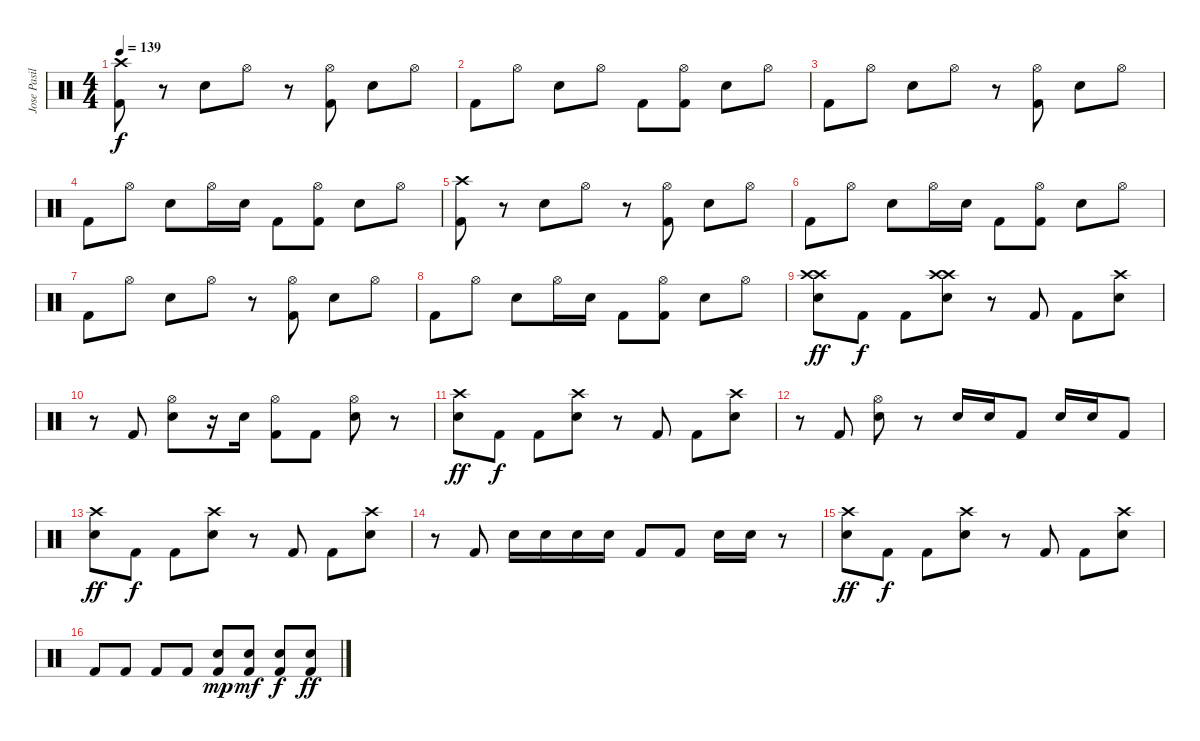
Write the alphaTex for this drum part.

\track ("Jose Pasillas - Drums" "Jose Pasil") {instrument percussion}
\staff {score}
\articulation defaults
\ts (4 4)
\tempo 139
\clef neutral
\ks c
("Crash high (hit)" "Kick (hit) 2").8{dy f} r.8 "Electric Snare (hit)".8 "Hi-Hat (open)".8 r.8 ("Hi-Hat (open)" "Kick (hit) 2").8 "Electric Snare (hit)".8 "Hi-Hat (open)".8 |
"Kick (hit) 2".8 "Hi-Hat (open)".8 "Electric Snare (hit)".8 "Hi-Hat (open)".8 "Kick (hit) 2".8 ("Hi-Hat (open)" "Kick (hit) 2").8 "Electric Snare (hit)".8 "Hi-Hat (open)".8 |
"Kick (hit) 2".8 "Hi-Hat (open)".8 "Electric Snare (hit)".8 "Hi-Hat (open)".8 r.8 ("Hi-Hat (open)" "Kick (hit) 2").8 "Electric Snare (hit)".8 "Hi-Hat (open)".8 |
"Kick (hit) 2".8 "Hi-Hat (open)".8 "Electric Snare (hit)".8 "Hi-Hat (open)".16 "Electric Snare (hit)".16 "Kick (hit) 2".8 ("Hi-Hat (open)" "Kick (hit) 2").8 "Electric Snare (hit)".8 "Hi-Hat (open)".8 |
("Crash high (hit)" "Kick (hit) 2").8 r.8 "Electric Snare (hit)".8 "Hi-Hat (open)".8 r.8 ("Hi-Hat (open)" "Kick (hit) 2").8 "Electric Snare (hit)".8 "Hi-Hat (open)".8 |
"Kick (hit) 2".8 "Hi-Hat (open)".8 "Electric Snare (hit)".8 "Hi-Hat (open)".16 "Electric Snare (hit)".16 "Kick (hit) 2".8 ("Hi-Hat (open)" "Kick (hit) 2").8 "Electric Snare (hit)".8 "Hi-Hat (open)".8 |
"Kick (hit) 2".8 "Hi-Hat (open)".8 "Electric Snare (hit)".8 "Hi-Hat (open)".8 r.8 ("Hi-Hat (open)" "Kick (hit) 2").8 "Electric Snare (hit)".8 "Hi-Hat (open)".8 |
"Kick (hit) 2".8 "Hi-Hat (open)".8 "Electric Snare (hit)".8 "Hi-Hat (open)".16 "Electric Snare (hit)".16 "Kick (hit) 2".8 ("Hi-Hat (open)" "Kick (hit) 2").8 "Electric Snare (hit)".8 "Hi-Hat (open)".8 |
("Crash high (hit)" "Crash high (hit)" "Electric Snare (hit)").8{dy ff} "Kick (hit) 2".8{dy f} "Kick (hit) 2".8 ("Crash high (hit)" "Crash high (hit)" "Electric Snare (hit)").8 r.8 "Kick (hit) 2".8 "Kick (hit) 2".8 ("Crash high (hit)" "Electric Snare (hit)").8 |
r.8 "Kick (hit) 2".8 ("Hi-Hat (open)" "Electric Snare (hit)").8 r.16 "Electric Snare (hit)".16 ("Hi-Hat (open)" "Kick (hit) 2").8 "Kick (hit) 2".8 ("Hi-Hat (open)" "Electric Snare (hit)").8 r.8 |
("Crash high (hit)" "Electric Snare (hit)").8{dy ff} "Kick (hit) 2".8{dy f} "Kick (hit) 2".8 ("Crash high (hit)" "Electric Snare (hit)").8 r.8 "Kick (hit) 2".8 "Kick (hit) 2".8 ("Crash high (hit)" "Electric Snare (hit)").8 |
r.8 "Kick (hit) 2".8 ("Hi-Hat (open)" "Electric Snare (hit)").8 r.8 "Electric Snare (hit)".16 "Electric Snare (hit)".16 "Kick (hit) 2".8 "Electric Snare (hit)".16 "Electric Snare (hit)".16 "Kick (hit) 2".8 |
("Crash high (hit)" "Electric Snare (hit)").8{dy ff} "Kick (hit) 2".8{dy f} "Kick (hit) 2".8 ("Crash high (hit)" "Electric Snare (hit)").8 r.8 "Kick (hit) 2".8 "Kick (hit) 2".8 ("Crash high (hit)" "Electric Snare (hit)").8 |
r.8 "Kick (hit) 2".8 "Electric Snare (hit)".16 "Electric Snare (hit)".16 "Electric Snare (hit)".16 "Electric Snare (hit)".16 "Kick (hit) 2".8 "Kick (hit) 2".8 "Electric Snare (hit)".16 "Electric Snare (hit)".16 r.8 |
("Crash high (hit)" "Electric Snare (hit)").8{dy ff} "Kick (hit) 2".8{dy f} "Kick (hit) 2".8 ("Crash high (hit)" "Electric Snare (hit)").8 r.8 "Kick (hit) 2".8 "Kick (hit) 2".8 ("Crash high (hit)" "Electric Snare (hit)").8 |
"Kick (hit) 2".8 "Kick (hit) 2".8 "Kick (hit) 2".8 "Kick (hit) 2".8 ("Electric Snare (hit)" "Kick (hit) 2").8{dy mp} ("Electric Snare (hit)" "Kick (hit) 2").8{dy mf} ("Electric Snare (hit)" "Kick (hit) 2").8{dy f} ("Electric Snare (hit)" "Kick (hit) 2").8{dy ff}
